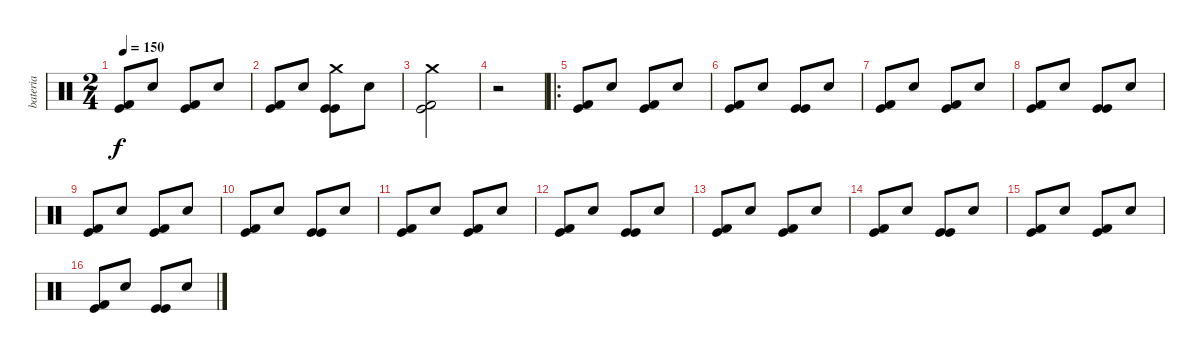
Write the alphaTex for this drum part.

\track ("bateria" "bateria") {instrument percussion}
\staff {score}
\articulation defaults
\ts (2 4)
\tempo 150
\clef neutral
\ks c
("Kick (hit) 2" "Kick (hit)").8{dy f} "Electric Snare (hit)".8 ("Kick (hit) 2" "Kick (hit)").8 "Electric Snare (hit)".8 |
("Kick (hit) 2" "Kick (hit)").8 "Electric Snare (hit)".8 ("Crash medium (hit)" "Kick (hit)" "Kick (hit)").8 "Electric Snare (hit)".8 |
("Crash medium (hit)" "Kick (hit) 2" "Kick (hit)").2 |
r.2 |
\ro
("Kick (hit) 2" "Kick (hit)").8 "Electric Snare (hit)".8 ("Kick (hit) 2" "Kick (hit)").8 "Electric Snare (hit)".8 |
("Kick (hit) 2" "Kick (hit)").8 "Electric Snare (hit)".8 ("Kick (hit)" "Kick (hit)").8 "Electric Snare (hit)".8 |
("Kick (hit) 2" "Kick (hit)").8 "Electric Snare (hit)".8 ("Kick (hit) 2" "Kick (hit)").8 "Electric Snare (hit)".8 |
("Kick (hit) 2" "Kick (hit)").8 "Electric Snare (hit)".8 ("Kick (hit)" "Kick (hit)").8 "Electric Snare (hit)".8 |
("Kick (hit) 2" "Kick (hit)").8 "Electric Snare (hit)".8 ("Kick (hit) 2" "Kick (hit)").8 "Electric Snare (hit)".8 |
("Kick (hit) 2" "Kick (hit)").8 "Electric Snare (hit)".8 ("Kick (hit)" "Kick (hit)").8 "Electric Snare (hit)".8 |
("Kick (hit) 2" "Kick (hit)").8 "Electric Snare (hit)".8 ("Kick (hit) 2" "Kick (hit)").8 "Electric Snare (hit)".8 |
("Kick (hit) 2" "Kick (hit)").8 "Electric Snare (hit)".8 ("Kick (hit)" "Kick (hit)").8 "Electric Snare (hit)".8 |
("Kick (hit) 2" "Kick (hit)").8 "Electric Snare (hit)".8 ("Kick (hit) 2" "Kick (hit)").8 "Electric Snare (hit)".8 |
("Kick (hit) 2" "Kick (hit)").8 "Electric Snare (hit)".8 ("Kick (hit)" "Kick (hit)").8 "Electric Snare (hit)".8 |
("Kick (hit) 2" "Kick (hit)").8 "Electric Snare (hit)".8 ("Kick (hit) 2" "Kick (hit)").8 "Electric Snare (hit)".8 |
("Kick (hit) 2" "Kick (hit)").8 "Electric Snare (hit)".8 ("Kick (hit)" "Kick (hit)").8 "Electric Snare (hit)".8
